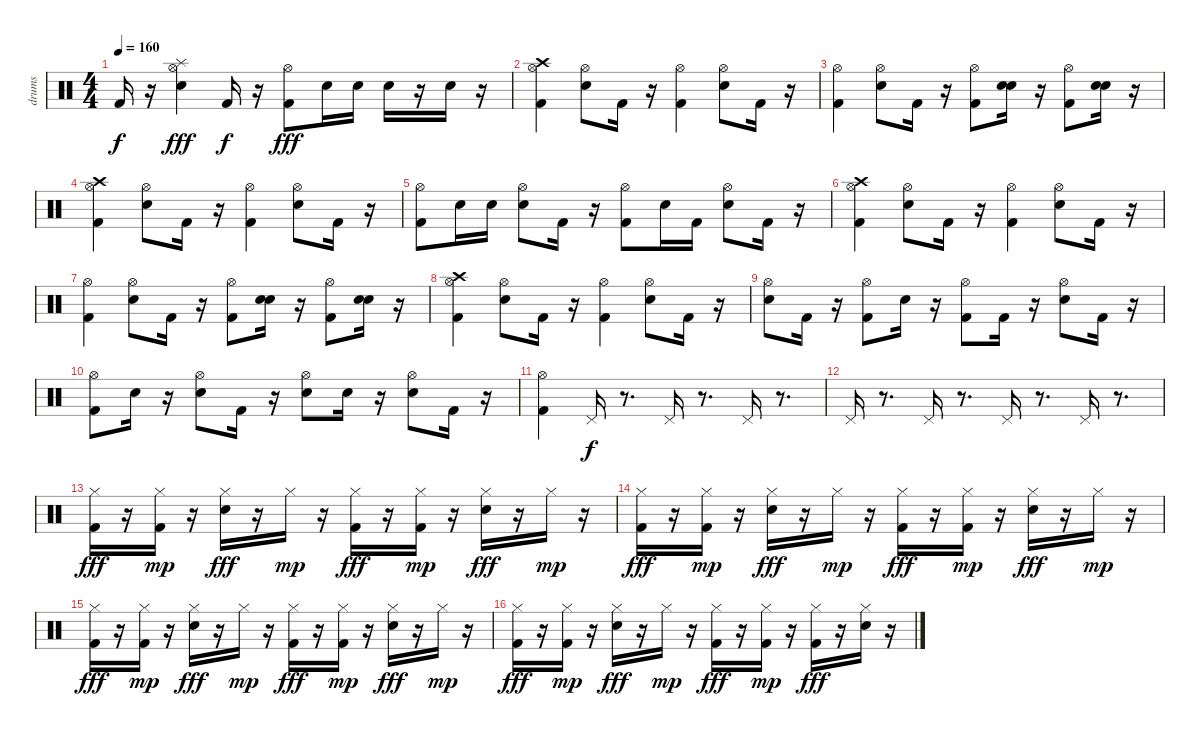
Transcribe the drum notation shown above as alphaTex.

\track ("drums" "drums") {instrument percussion}
\staff {score}
\articulation defaults
\ts (4 4)
\tempo 160
\clef neutral
\ks c "Kick (hit) 2".16{dy f}
r.16 ("Electric Snare (hit)" "Hi-Hat (open)" "Splash (hit)").4{dy fff} "Kick (hit) 2".16{dy f} r.16 ("Kick (hit) 2" "Hi-Hat (open)").8{dy fff} "Electric Snare (hit)".16 "Electric Snare (hit)".16 "Electric Snare (hit)".16 r.16 "Snare (hit) 2".16 r.16 |
("Kick (hit) 2" "Crash high (hit)" "Hi-Hat (open)").4 ("Electric Snare (hit)" "Hi-Hat (open)").8 "Kick (hit) 2".16 r.16 ("Kick (hit) 2" "Hi-Hat (open)").4 ("Electric Snare (hit)" "Hi-Hat (open)").8 "Kick (hit) 2".16 r.16 |
("Kick (hit) 2" "Hi-Hat (open)").4 ("Electric Snare (hit)" "Hi-Hat (open)").8 "Kick (hit) 2".16 r.16 ("Kick (hit) 2" "Hi-Hat (open)").8 ("Electric Snare (hit)" "Snare (hit) 2").16 r.16 ("Kick (hit) 2" "Hi-Hat (open)").8 ("Electric Snare (hit)" "Snare (hit) 2").16 r.16 |
("Hi-Hat (open)" "Crash high (hit)" "Kick (hit) 2").4 ("Electric Snare (hit)" "Hi-Hat (open)").8 "Kick (hit) 2".16 r.16 ("Kick (hit) 2" "Hi-Hat (open)").4 ("Electric Snare (hit)" "Hi-Hat (open)").8 "Kick (hit) 2".16 r.16 |
("Hi-Hat (open)" "Kick (hit) 2").8 "Electric Snare (hit)".16 "Electric Snare (hit)".16 ("Hi-Hat (open)" "Electric Snare (hit)").8 "Kick (hit) 2".16 r.16 ("Hi-Hat (open)" "Kick (hit) 2").8 "Electric Snare (hit)".16 "Kick (hit) 2".16 ("Hi-Hat (open)" "Snare (hit) 2").8 "Kick (hit) 2".16 r.16 |
("Hi-Hat (open)" "Crash high (hit)" "Kick (hit) 2").4 ("Electric Snare (hit)" "Hi-Hat (open)").8 "Kick (hit) 2".16 r.16 ("Kick (hit) 2" "Hi-Hat (open)").4 ("Electric Snare (hit)" "Hi-Hat (open)").8 "Kick (hit) 2".16 r.16 |
("Kick (hit) 2" "Hi-Hat (open)").4 ("Electric Snare (hit)" "Hi-Hat (open)").8 "Kick (hit) 2".16 r.16 ("Kick (hit) 2" "Hi-Hat (open)").8 ("Electric Snare (hit)" "Snare (hit) 2").16 r.16 ("Kick (hit) 2" "Hi-Hat (open)").8 ("Electric Snare (hit)" "Snare (hit) 2").16 r.16 |
("Hi-Hat (open)" "Crash high (hit)" "Kick (hit) 2").4 ("Electric Snare (hit)" "Hi-Hat (open)").8 "Kick (hit) 2".16 r.16 ("Kick (hit) 2" "Hi-Hat (open)").4 ("Electric Snare (hit)" "Hi-Hat (open)").8 "Kick (hit) 2".16 r.16 |
("Hi-Hat (open)" "Electric Snare (hit)").8 "Kick (hit) 2".16 r.16 ("Hi-Hat (open)" "Kick (hit) 2").8 "Electric Snare (hit)".16 r.16 ("Hi-Hat (open)" "Kick (hit) 2").8 "Kick (hit) 2".16 r.16 ("Hi-Hat (open)" "Electric Snare (hit)").8 "Kick (hit) 2".16 r.16 |
("Hi-Hat (open)" "Kick (hit) 2").8 "Electric Snare (hit)".16 r.16 ("Hi-Hat (open)" "Electric Snare (hit)").8 "Kick (hit) 2".16 r.16 ("Hi-Hat (open)" "Electric Snare (hit)").8 "Electric Snare (hit)".16 r.16 ("Hi-Hat (open)" "Electric Snare (hit)").8 "Kick (hit) 2".16 r.16 |
("Hi-Hat (open)" "Kick (hit) 2").4 "Pedal Hi-Hat (hit)".16{dy f} r.8{d} "Pedal Hi-Hat (hit)".16 r.8{d} "Pedal Hi-Hat (hit)".16 r.8{d} |
"Pedal Hi-Hat (hit)".16 r.8{d} "Pedal Hi-Hat (hit)".16 r.8{d} "Pedal Hi-Hat (hit)".16 r.8{d} "Pedal Hi-Hat (hit)".16 r.8{d} |
("Hi-Hat (closed)" "Kick (hit) 2").16{dy fff} r.16 ("Kick (hit) 2" "Hi-Hat (closed)").16{dy mp} r.16 ("Electric Snare (hit)" "Hi-Hat (closed)").16{dy fff} r.16 "Hi-Hat (closed)".16{dy mp} r.16 ("Kick (hit) 2" "Hi-Hat (closed)").16{dy fff} r.16 ("Kick (hit) 2" "Hi-Hat (closed)").16{dy mp} r.16 ("Electric Snare (hit)" "Hi-Hat (closed)").16{dy fff} r.16 "Hi-Hat (closed)".16{dy mp} r.16 |
("Kick (hit) 2" "Hi-Hat (closed)").16{dy fff} r.16 ("Kick (hit) 2" "Hi-Hat (closed)").16{dy mp} r.16 ("Electric Snare (hit)" "Hi-Hat (closed)").16{dy fff} r.16 "Hi-Hat (closed)".16{dy mp} r.16 ("Kick (hit) 2" "Hi-Hat (closed)").16{dy fff} r.16 ("Kick (hit) 2" "Hi-Hat (closed)").16{dy mp} r.16 ("Electric Snare (hit)" "Hi-Hat (closed)").16{dy fff} r.16 "Hi-Hat (closed)".16{dy mp} r.16 |
("Kick (hit) 2" "Hi-Hat (closed)").16{dy fff} r.16 ("Kick (hit) 2" "Hi-Hat (closed)").16{dy mp} r.16 ("Electric Snare (hit)" "Hi-Hat (closed)").16{dy fff} r.16 "Hi-Hat (closed)".16{dy mp} r.16 ("Kick (hit) 2" "Hi-Hat (closed)").16{dy fff} r.16 ("Kick (hit) 2" "Hi-Hat (closed)").16{dy mp} r.16 ("Electric Snare (hit)" "Hi-Hat (closed)").16{dy fff} r.16 "Hi-Hat (closed)".16{dy mp} r.16 |
("Kick (hit) 2" "Hi-Hat (closed)").16{dy fff} r.16 ("Kick (hit) 2" "Hi-Hat (closed)").16{dy mp} r.16 ("Electric Snare (hit)" "Hi-Hat (closed)").16{dy fff} r.16 "Hi-Hat (closed)".16{dy mp} r.16 ("Kick (hit) 2" "Hi-Hat (closed)").16{dy fff} r.16 ("Kick (hit) 2" "Hi-Hat (closed)").16{dy mp} r.16 ("Hi-Hat (closed)" "Kick (hit) 2").16{dy fff} r.16 ("Hi-Hat (closed)" "Electric Snare (hit)").16 r.16
